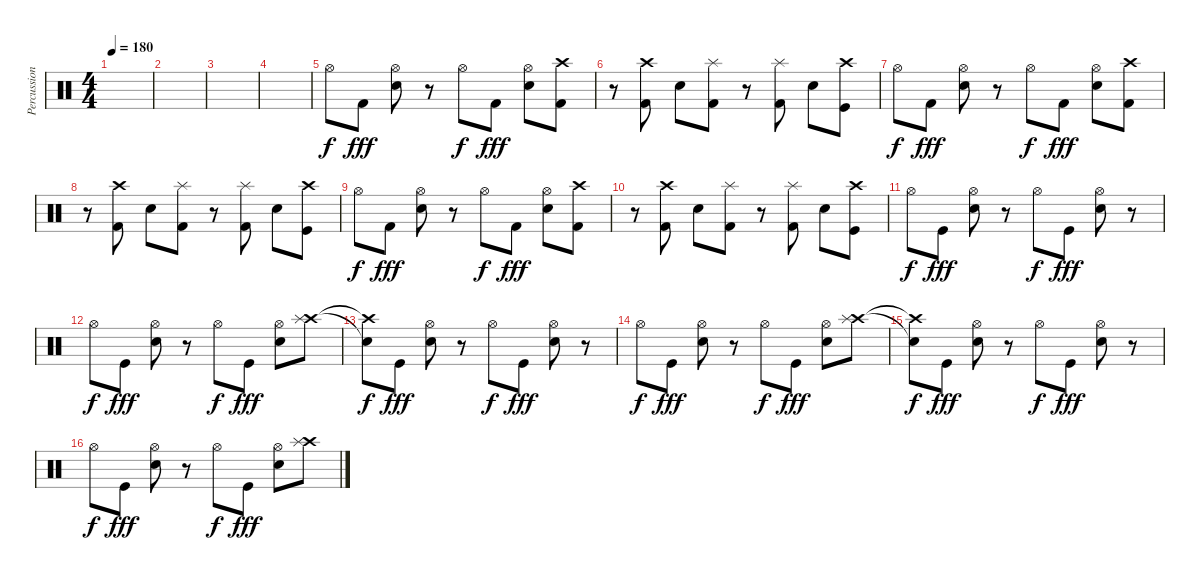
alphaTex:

\track ("Percussion" "Percussion") {instrument percussion}
\staff
\articulation defaults
\ts (4 4)
\tempo 180
\clef neutral
\ks c
|
|
|
|
"Hi-Hat (open)".8 "Kick (hit) 2".8{dy fff} ("Hi-Hat (open)" "Electric Snare (hit)").8 r.8 "Hi-Hat (open)".8{dy f} "Kick (hit) 2".8{dy fff} ("Hi-Hat (open)" "Electric Snare (hit)").8 ("Crash high (hit)" "Kick (hit) 2").8 |
r.8 ("Crash high (hit)" "Kick (hit) 2").8 "Electric Snare (hit)".8 ("Splash (hit)" "Kick (hit) 2").8 r.8 ("Splash (hit)" "Kick (hit) 2").8 "Electric Snare (hit)".8 ("Crash high (hit)" "Kick (hit)").8 |
"Hi-Hat (open)".8{dy f} "Kick (hit) 2".8{dy fff} ("Hi-Hat (open)" "Electric Snare (hit)").8 r.8 "Hi-Hat (open)".8{dy f} "Kick (hit) 2".8{dy fff} ("Hi-Hat (open)" "Electric Snare (hit)").8 ("Crash high (hit)" "Kick (hit) 2").8 |
r.8 ("Crash high (hit)" "Kick (hit) 2").8 "Electric Snare (hit)".8 ("Splash (hit)" "Kick (hit) 2").8 r.8 ("Splash (hit)" "Kick (hit) 2").8 "Electric Snare (hit)".8 ("Crash high (hit)" "Kick (hit)").8 |
"Hi-Hat (open)".8{dy f} "Kick (hit) 2".8{dy fff} ("Hi-Hat (open)" "Electric Snare (hit)").8 r.8 "Hi-Hat (open)".8{dy f} "Kick (hit) 2".8{dy fff} ("Hi-Hat (open)" "Electric Snare (hit)").8 ("Crash high (hit)" "Kick (hit) 2").8 |
r.8 ("Crash high (hit)" "Kick (hit) 2").8 "Electric Snare (hit)".8 ("Splash (hit)" "Kick (hit) 2").8 r.8 ("Splash (hit)" "Kick (hit) 2").8 "Electric Snare (hit)".8 ("Crash high (hit)" "Kick (hit)").8 |
"Hi-Hat (open)".8{dy f} "Kick (hit)".8{dy fff} ("Hi-Hat (open)" "Electric Snare (hit)").8 r.8 "Hi-Hat (open)".8{dy f} "Kick (hit)".8{dy fff} ("Hi-Hat (open)" "Electric Snare (hit)").8 r.8 |
"Hi-Hat (open)".8{dy f} "Kick (hit)".8{dy fff} ("Hi-Hat (open)" "Electric Snare (hit)").8 r.8 "Hi-Hat (open)".8{dy f} "Kick (hit)".8{dy fff} ("Hi-Hat (open)" "Electric Snare (hit)").8 ("Crash high (hit)" "Splash (hit)").8 |
("Crash high (hit)"{t} "Snare (hit)"{t}).8{dy f} "Kick (hit)".8{dy fff} ("Hi-Hat (open)" "Electric Snare (hit)").8 r.8 "Hi-Hat (open)".8{dy f} "Kick (hit)".8{dy fff} ("Hi-Hat (open)" "Electric Snare (hit)").8 r.8 |
"Hi-Hat (open)".8{dy f} "Kick (hit)".8{dy fff} ("Hi-Hat (open)" "Electric Snare (hit)").8 r.8 "Hi-Hat (open)".8{dy f} "Kick (hit)".8{dy fff} ("Hi-Hat (open)" "Electric Snare (hit)").8 ("Crash high (hit)" "Splash (hit)").8 |
("Crash high (hit)"{t} "Snare (hit)"{t}).8{dy f} "Kick (hit)".8{dy fff} ("Hi-Hat (open)" "Electric Snare (hit)").8 r.8 "Hi-Hat (open)".8{dy f} "Kick (hit)".8{dy fff} ("Hi-Hat (open)" "Electric Snare (hit)").8 r.8 |
"Hi-Hat (open)".8{dy f} "Kick (hit)".8{dy fff} ("Hi-Hat (open)" "Electric Snare (hit)").8 r.8 "Hi-Hat (open)".8{dy f} "Kick (hit)".8{dy fff} ("Hi-Hat (open)" "Electric Snare (hit)").8 ("Crash high (hit)" "Splash (hit)").8
